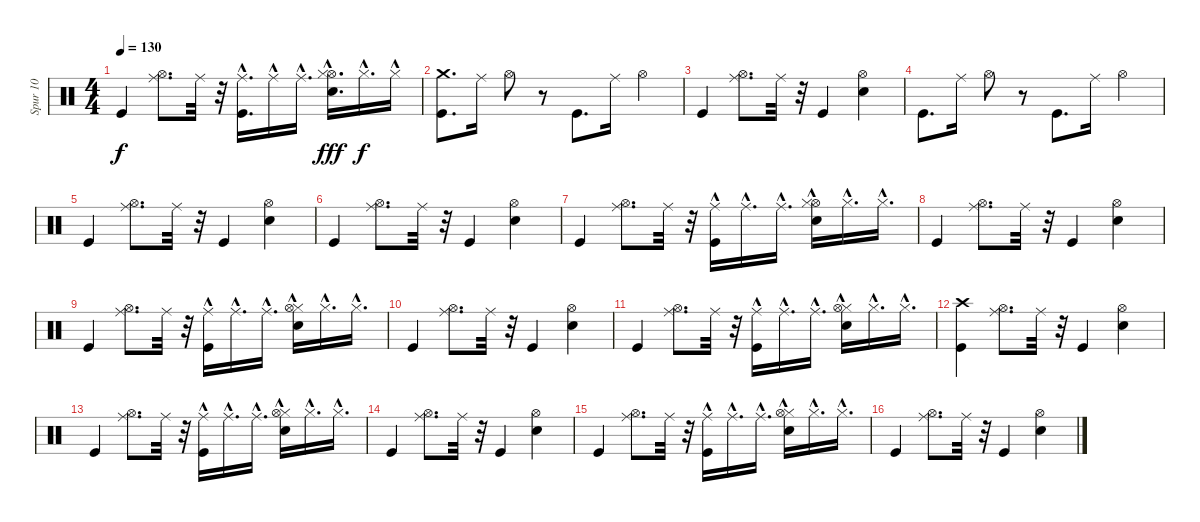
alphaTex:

\track ("Spur 10" "Spur 10") {instrument percussion}
\staff {score}
\articulation defaults
\ts (4 4)
\tempo 130
\clef neutral
\ks c "Kick (hit)".4{dy f}
("Hi-Hat (open)" "Ride (middle)").8{d} "Ride (middle)".32 r.32 ("Ride (middle)"{hac} "Kick (hit)").16{d} "Ride (middle)"{hac}.16 "Ride (middle)"{hac}.16{d} ("Hi-Hat (open)" "Hi-Hat (closed)"{hac} "Electric Snare (hit)").16{d dy fff} "Hi-Hat (closed)"{hac}.16{d dy f} "Hi-Hat (closed)"{hac}.16 |
("Crash medium (hit)" "Kick (hit)").8{d} "Ride (middle)".16 "Hi-Hat (open)".8 r.8 "Kick (hit)".8{d} "Ride (middle)".16 "Hi-Hat (open)".4 |
"Kick (hit)".4 ("Hi-Hat (open)" "Ride (middle)").8{d} "Ride (middle)".32 r.32 "Kick (hit)".4 ("Hi-Hat (open)" "Electric Snare (hit)").4 |
"Kick (hit)".8{d} "Ride (middle)".16 "Hi-Hat (open)".8 r.8 "Kick (hit)".8{d} "Ride (middle)".16 "Hi-Hat (open)".4 |
"Kick (hit)".4 ("Hi-Hat (open)" "Ride (middle)").8{d} "Ride (middle)".32 r.32 "Kick (hit)".4 ("Hi-Hat (open)" "Electric Snare (hit)").4 |
"Kick (hit)".4 ("Hi-Hat (open)" "Ride (middle)").8{d} "Ride (middle)".32 r.32 "Kick (hit)".4 ("Hi-Hat (open)" "Electric Snare (hit)").4 |
"Kick (hit)".4 ("Hi-Hat (open)" "Ride (middle)").8{d} "Ride (middle)".32 r.32 ("Ride (middle)"{hac} "Kick (hit)").16 "Ride (middle)"{hac}.16{d} "Ride (middle)"{hac}.16{d} ("Hi-Hat (open)" "Hi-Hat (closed)"{hac} "Electric Snare (hit)").16 "Hi-Hat (closed)"{hac}.16{d} "Hi-Hat (closed)"{hac}.16{d} |
"Kick (hit)".4 ("Hi-Hat (open)" "Ride (middle)").8{d} "Ride (middle)".32 r.32 "Kick (hit)".4 ("Hi-Hat (open)" "Electric Snare (hit)").4 |
"Kick (hit)".4 ("Hi-Hat (open)" "Ride (middle)").8{d} "Ride (middle)".32 r.32 ("Ride (middle)"{hac} "Kick (hit)").16 "Ride (middle)"{hac}.16{d} "Ride (middle)"{hac}.16{d} ("Hi-Hat (closed)"{hac} "Hi-Hat (open)" "Electric Snare (hit)").16 "Hi-Hat (closed)"{hac}.16{d} "Hi-Hat (closed)"{hac}.16{d} |
"Kick (hit)".4 ("Hi-Hat (open)" "Ride (middle)").8{d} "Ride (middle)".32 r.32 "Kick (hit)".4 ("Hi-Hat (open)" "Electric Snare (hit)").4 |
"Kick (hit)".4 ("Hi-Hat (open)" "Ride (middle)").8{d} "Ride (middle)".32 r.32 ("Ride (middle)"{hac} "Kick (hit)").16 "Ride (middle)"{hac}.16{d} "Ride (middle)"{hac}.16{d} ("Hi-Hat (closed)"{hac} "Hi-Hat (open)" "Electric Snare (hit)").16 "Hi-Hat (closed)"{hac}.16{d} "Hi-Hat (closed)"{hac}.16{d} |
("Crash high (hit)" "Kick (hit)").4 ("Hi-Hat (open)" "Ride (middle)").8{d} "Ride (middle)".32 r.32 "Kick (hit)".4 ("Hi-Hat (open)" "Electric Snare (hit)").4 |
"Kick (hit)".4 ("Hi-Hat (open)" "Ride (middle)").8{d} "Ride (middle)".32 r.32 ("Ride (middle)"{hac} "Kick (hit)").16 "Ride (middle)"{hac}.16{d} "Ride (middle)"{hac}.16{d} ("Hi-Hat (closed)"{hac} "Hi-Hat (open)" "Electric Snare (hit)").16 "Hi-Hat (closed)"{hac}.16{d} "Hi-Hat (closed)"{hac}.16{d} |
"Kick (hit)".4 ("Hi-Hat (open)" "Ride (middle)").8{d} "Ride (middle)".32 r.32 "Kick (hit)".4 ("Hi-Hat (open)" "Electric Snare (hit)").4 |
"Kick (hit)".4 ("Hi-Hat (open)" "Ride (middle)").8{d} "Ride (middle)".32 r.32 ("Ride (middle)"{hac} "Kick (hit)").16 "Ride (middle)"{hac}.16{d} "Ride (middle)"{hac}.16{d} ("Hi-Hat (closed)"{hac} "Hi-Hat (open)" "Electric Snare (hit)").16 "Hi-Hat (closed)"{hac}.16{d} "Hi-Hat (closed)"{hac}.16{d} |
"Kick (hit)".4 ("Hi-Hat (open)" "Ride (middle)").8{d} "Ride (middle)".32 r.32 "Kick (hit)".4 ("Hi-Hat (open)" "Electric Snare (hit)").4
